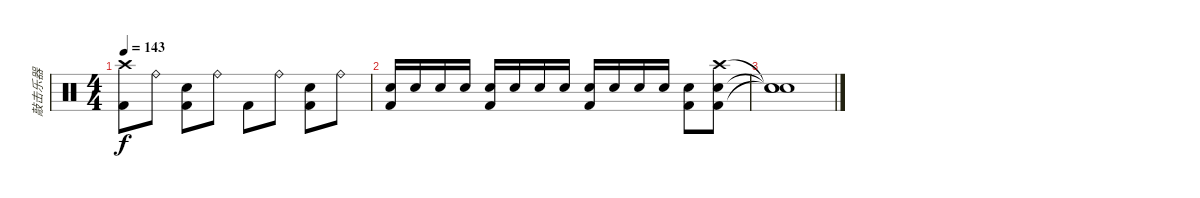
\track ("敲击乐器" "敲击乐器") {instrument percussion}
\staff {score}
\articulation defaults
\ts (4 4)
\tempo 143
\clef neutral
\ks c
("Crash high (hit)" "Kick (hit) 2").8{dy f} "Ride (bell)".8 ("Electric Snare (hit)" "Kick (hit) 2").8 "Ride (bell)".8 "Kick (hit) 2".8 "Ride (bell)".8 ("Electric Snare (hit)" "Kick (hit) 2").8 "Ride (bell)".8 |
("Electric Snare (hit)" "Kick (hit) 2").16 "Electric Snare (hit)".16 "Electric Snare (hit)".16 "Electric Snare (hit)".16 ("Electric Snare (hit)" "Kick (hit) 2").16 "Electric Snare (hit)".16 "Electric Snare (hit)".16 "Electric Snare (hit)".16 ("Electric Snare (hit)" "Kick (hit) 2").16 "Electric Snare (hit)".16 "Electric Snare (hit)".16 "Electric Snare (hit)".16 ("Electric Snare (hit)" "Kick (hit) 2").8 ("Crash high (hit)" "Electric Snare (hit)" "Kick (hit) 2").8 |
("Snare (hit)"{t} "Snare (hit)"{t} "Snare (hit)"{t}).1
